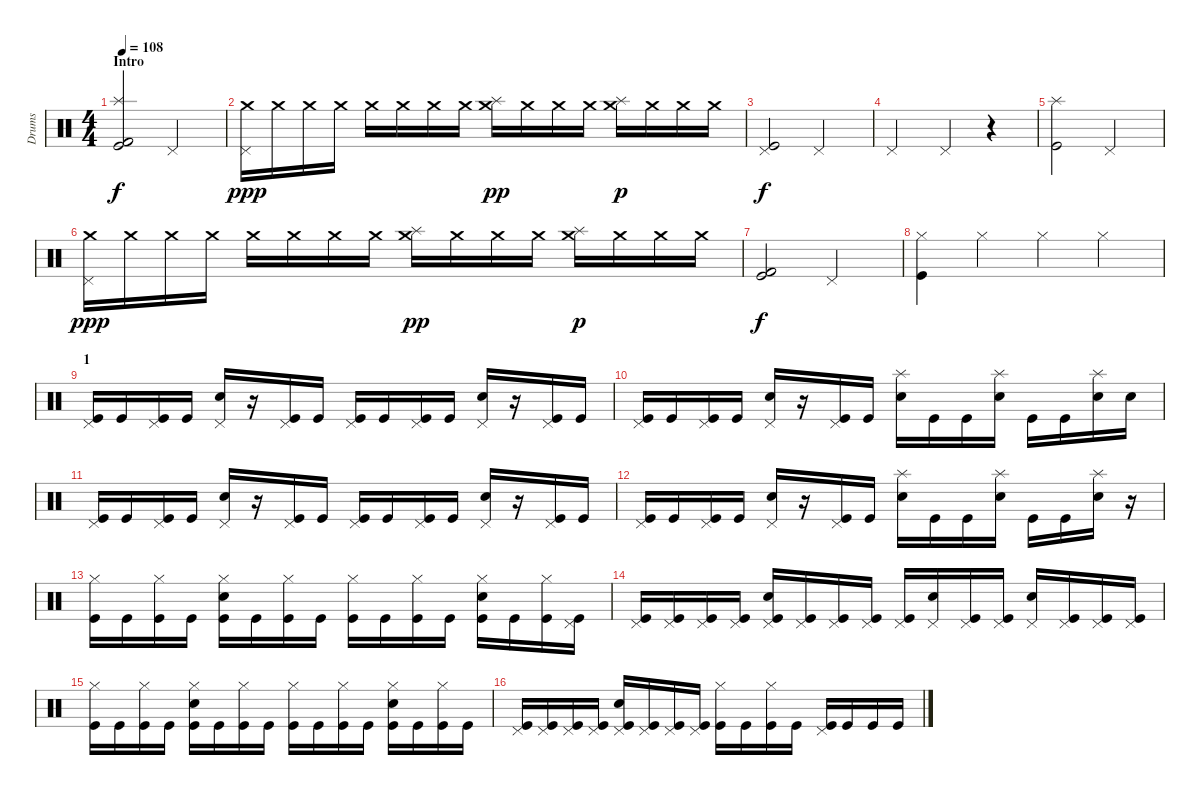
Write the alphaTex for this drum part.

\track ("Drums" "Drums") {instrument percussion}
\staff {score}
\articulation defaults
\ts (4 4)
\section ("" "Intro")
\tempo 108
\clef neutral
\ks c
("Kick (hit)" "Splash (hit)" "Kick (hit) 2").2{dy f} "Pedal Hi-Hat (hit)".2 |
("Pedal Hi-Hat (hit)" "Crash medium (hit)").16{dy ppp} "Crash medium (hit)".16 "Crash medium (hit)".16 "Crash medium (hit)".16 "Crash medium (hit)".16 "Crash medium (hit)".16 "Crash medium (hit)".16 "Crash medium (hit)".16 ("Splash (hit)" "Crash medium (hit)").16{dy pp} "Crash medium (hit)".16 "Crash medium (hit)".16 "Crash medium (hit)".16 ("Splash (hit)" "Crash medium (hit)").16{dy p} "Crash medium (hit)".16 "Crash medium (hit)".16 "Crash medium (hit)".16 |
("Kick (hit)" "Pedal Hi-Hat (hit)").2{dy f} "Pedal Hi-Hat (hit)".2 |
"Pedal Hi-Hat (hit)".2 "Pedal Hi-Hat (hit)".4 r.4 |
("Kick (hit)" "Splash (hit)").2 "Pedal Hi-Hat (hit)".2 |
("Pedal Hi-Hat (hit)" "Crash medium (hit)").16{dy ppp} "Crash medium (hit)".16 "Crash medium (hit)".16 "Crash medium (hit)".16 "Crash medium (hit)".16 "Crash medium (hit)".16 "Crash medium (hit)".16 "Crash medium (hit)".16 ("Splash (hit)" "Crash medium (hit)").16{dy pp} "Crash medium (hit)".16 "Crash medium (hit)".16 "Crash medium (hit)".16 ("Splash (hit)" "Crash medium (hit)").16{dy p} "Crash medium (hit)".16 "Crash medium (hit)".16 "Crash medium (hit)".16 |
("Kick (hit)" "Kick (hit) 2").2{dy f} "Pedal Hi-Hat (hit)".2 |
("Kick (hit)" "Hi-Hat (closed)").4 "Hi-Hat (closed)".4 "Hi-Hat (closed)".4 "Hi-Hat (closed)".4 |
\section ("" "1")
("Kick (hit)" "Pedal Hi-Hat (hit)").16 "Kick (hit)".16 ("Kick (hit)" "Pedal Hi-Hat (hit)").16 "Kick (hit)".16 ("Electric Snare (hit)" "Pedal Hi-Hat (hit)").16 r.16 ("Kick (hit)" "Pedal Hi-Hat (hit)").16 "Kick (hit)".16 ("Kick (hit)" "Pedal Hi-Hat (hit)").16 "Kick (hit)".16 ("Kick (hit)" "Pedal Hi-Hat (hit)").16 "Kick (hit)".16 ("Electric Snare (hit)" "Pedal Hi-Hat (hit)").16 r.16 ("Kick (hit)" "Pedal Hi-Hat (hit)").16 "Kick (hit)".16 |
("Kick (hit)" "Pedal Hi-Hat (hit)").16 "Kick (hit)".16 ("Kick (hit)" "Pedal Hi-Hat (hit)").16 "Kick (hit)".16 ("Electric Snare (hit)" "Pedal Hi-Hat (hit)").16 r.16 ("Kick (hit)" "Pedal Hi-Hat (hit)").16 "Kick (hit)".16 ("Electric Snare (hit)" "Splash (hit)").16 "Kick (hit)".16 "Kick (hit)".16 ("Electric Snare (hit)" "Splash (hit)").16 "Kick (hit)".16 "Kick (hit)".16 ("Electric Snare (hit)" "Splash (hit)").16 "Electric Snare (hit)".16 |
("Kick (hit)" "Pedal Hi-Hat (hit)").16 "Kick (hit)".16 ("Kick (hit)" "Pedal Hi-Hat (hit)").16 "Kick (hit)".16 ("Electric Snare (hit)" "Pedal Hi-Hat (hit)").16 r.16 ("Kick (hit)" "Pedal Hi-Hat (hit)").16 "Kick (hit)".16 ("Kick (hit)" "Pedal Hi-Hat (hit)").16 "Kick (hit)".16 ("Kick (hit)" "Pedal Hi-Hat (hit)").16 "Kick (hit)".16 ("Electric Snare (hit)" "Pedal Hi-Hat (hit)").16 r.16 ("Kick (hit)" "Pedal Hi-Hat (hit)").16 "Kick (hit)".16 |
("Kick (hit)" "Pedal Hi-Hat (hit)").16 "Kick (hit)".16 ("Kick (hit)" "Pedal Hi-Hat (hit)").16 "Kick (hit)".16 ("Electric Snare (hit)" "Pedal Hi-Hat (hit)").16 r.16 ("Kick (hit)" "Pedal Hi-Hat (hit)").16 "Kick (hit)".16 ("Electric Snare (hit)" "Splash (hit)").16 "Kick (hit)".16 "Kick (hit)".16 ("Electric Snare (hit)" "Splash (hit)").16 "Kick (hit)".16 "Kick (hit)".16 ("Electric Snare (hit)" "Splash (hit)").16 r.16 |
("Kick (hit)" "Hi-Hat (closed)").16 "Kick (hit)".16 ("Kick (hit)" "Hi-Hat (closed)").16 "Kick (hit)".16 ("Electric Snare (hit)" "Kick (hit)" "Hi-Hat (closed)").16 "Kick (hit)".16 ("Kick (hit)" "Hi-Hat (closed)").16 "Kick (hit)".16 ("Kick (hit)" "Hi-Hat (closed)").16 "Kick (hit)".16 ("Kick (hit)" "Hi-Hat (closed)").16 "Kick (hit)".16 ("Electric Snare (hit)" "Kick (hit)" "Hi-Hat (closed)").16 "Kick (hit)".16 ("Kick (hit)" "Hi-Hat (closed)").16 ("Kick (hit)" "Pedal Hi-Hat (hit)").16 |
("Kick (hit)" "Pedal Hi-Hat (hit)").16 ("Kick (hit)" "Pedal Hi-Hat (hit)").16 ("Kick (hit)" "Pedal Hi-Hat (hit)").16 ("Kick (hit)" "Pedal Hi-Hat (hit)").16 ("Electric Snare (hit)" "Kick (hit)" "Pedal Hi-Hat (hit)").16 ("Kick (hit)" "Pedal Hi-Hat (hit)").16 ("Kick (hit)" "Pedal Hi-Hat (hit)").16 ("Kick (hit)" "Pedal Hi-Hat (hit)").16 ("Kick (hit)" "Pedal Hi-Hat (hit)").16 ("Electric Snare (hit)" "Pedal Hi-Hat (hit)").16 ("Kick (hit)" "Pedal Hi-Hat (hit)").16 ("Kick (hit)" "Pedal Hi-Hat (hit)").16 ("Electric Snare (hit)" "Pedal Hi-Hat (hit)").16 ("Kick (hit)" "Pedal Hi-Hat (hit)").16 ("Kick (hit)" "Pedal Hi-Hat (hit)").16 ("Kick (hit)" "Pedal Hi-Hat (hit)").16 |
("Kick (hit)" "Hi-Hat (closed)").16 "Kick (hit)".16 ("Kick (hit)" "Hi-Hat (closed)").16 "Kick (hit)".16 ("Electric Snare (hit)" "Kick (hit)" "Hi-Hat (closed)").16 "Kick (hit)".16 ("Kick (hit)" "Hi-Hat (closed)").16 "Kick (hit)".16 ("Kick (hit)" "Hi-Hat (closed)").16 "Kick (hit)".16 ("Kick (hit)" "Hi-Hat (closed)").16 "Kick (hit)".16 ("Electric Snare (hit)" "Kick (hit)" "Hi-Hat (closed)").16 "Kick (hit)".16 ("Kick (hit)" "Hi-Hat (closed)").16 "Kick (hit)".16 |
("Kick (hit)" "Pedal Hi-Hat (hit)").16 ("Kick (hit)" "Pedal Hi-Hat (hit)").16 ("Kick (hit)" "Pedal Hi-Hat (hit)").16 ("Kick (hit)" "Pedal Hi-Hat (hit)").16 ("Electric Snare (hit)" "Kick (hit)" "Pedal Hi-Hat (hit)").16 ("Kick (hit)" "Pedal Hi-Hat (hit)").16 ("Kick (hit)" "Pedal Hi-Hat (hit)").16 ("Kick (hit)" "Pedal Hi-Hat (hit)").16 ("Kick (hit)" "Hi-Hat (closed)").16 "Kick (hit)".16 ("Kick (hit)" "Hi-Hat (closed)").16 "Kick (hit)".16 ("Kick (hit)" "Pedal Hi-Hat (hit)").16 "Kick (hit)".16 "Kick (hit)".16 "Kick (hit)".16
